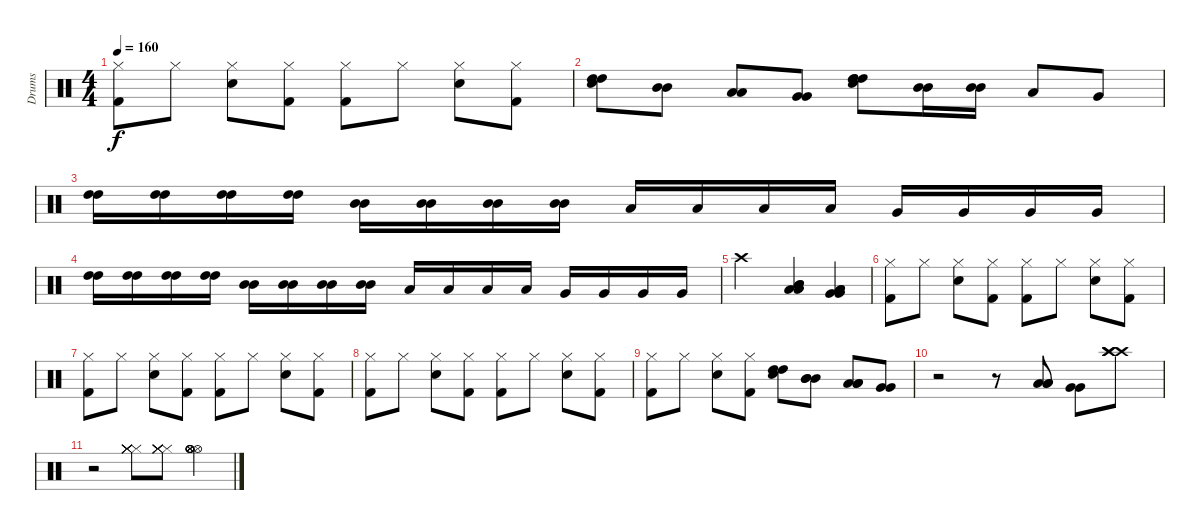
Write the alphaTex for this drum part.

\track ("Drums" "Drums") {instrument percussion}
\staff {score}
\articulation defaults
\ts (4 4)
\tempo 160
\clef neutral
\ks c
("Hi-Hat (closed)" "Kick (hit) 2").8{dy f} "Hi-Hat (closed)".8 ("Hi-Hat (closed)" "Electric Snare (hit)").8 ("Hi-Hat (closed)" "Kick (hit) 2").8 ("Hi-Hat (closed)" "Kick (hit) 2").8 "Hi-Hat (closed)".8 ("Hi-Hat (closed)" "Electric Snare (hit)").8 ("Hi-Hat (closed)" "Kick (hit) 2").8 |
("High Tom (hit)" "Electric Snare (hit)" "High Tom (hit)").8 ("Mid Tom (hit)" "Mid Tom (hit)").8 ("Low Tom (hit)" "Low Tom (hit)").8 ("Very Low Tom (hit)" "Very Low Tom (hit)").8 ("High Tom (hit)" "High Tom (hit)" "High Tom (hit)" "Electric Snare (hit)").8 ("Mid Tom (hit)" "Mid Tom (hit)").16 ("Mid Tom (hit)" "Mid Tom (hit)").16 "Low Tom (hit)".8 "Very Low Tom (hit)".8 |
("High Tom (hit)" "High Tom (hit)").16 ("High Tom (hit)" "High Tom (hit)").16 ("High Tom (hit)" "High Tom (hit)").16 ("High Tom (hit)" "High Tom (hit)").16 ("Mid Tom (hit)" "Mid Tom (hit)").16 ("Mid Tom (hit)" "Mid Tom (hit)").16 ("Mid Tom (hit)" "Mid Tom (hit)").16 ("Mid Tom (hit)" "Mid Tom (hit)").16 "Low Tom (hit)".16 "Low Tom (hit)".16 "Low Tom (hit)".16 "Low Tom (hit)".16 "Very Low Tom (hit)".16 "Very Low Tom (hit)".16 "Very Low Tom (hit)".16 "Very Low Tom (hit)".16 |
("High Tom (hit)" "High Tom (hit)").16 ("High Tom (hit)" "High Tom (hit)").16 ("High Tom (hit)" "High Tom (hit)").16 ("High Tom (hit)" "High Tom (hit)").16 ("Mid Tom (hit)" "Mid Tom (hit)").16 ("Mid Tom (hit)" "Mid Tom (hit)").16 ("Mid Tom (hit)" "Mid Tom (hit)").16 ("Mid Tom (hit)" "Mid Tom (hit)").16 "Low Tom (hit)".16 "Low Tom (hit)".16 "Low Tom (hit)".16 "Low Tom (hit)".16 "Very Low Tom (hit)".16 "Very Low Tom (hit)".16 "Very Low Tom (hit)".16 "Very Low Tom (hit)".16 |
"Crash high (hit)".2 ("Low Tom (hit)" "Low Tom (hit)" "Mid Tom (hit)" "Mid Tom (hit)").4 ("Very Low Tom (hit)" "Very Low Tom (hit)" "Low Tom (hit)" "Low Tom (hit)").4 |
("Hi-Hat (closed)" "Kick (hit) 2").8 "Hi-Hat (closed)".8 ("Hi-Hat (closed)" "Electric Snare (hit)").8 ("Hi-Hat (closed)" "Kick (hit) 2").8 ("Hi-Hat (closed)" "Kick (hit) 2").8 "Hi-Hat (closed)".8 ("Hi-Hat (closed)" "Electric Snare (hit)").8 ("Hi-Hat (closed)" "Kick (hit) 2").8 |
("Hi-Hat (closed)" "Kick (hit) 2").8 "Hi-Hat (closed)".8 ("Hi-Hat (closed)" "Electric Snare (hit)").8 ("Hi-Hat (closed)" "Kick (hit) 2").8 ("Hi-Hat (closed)" "Kick (hit) 2").8 "Hi-Hat (closed)".8 ("Hi-Hat (closed)" "Electric Snare (hit)").8 ("Hi-Hat (closed)" "Kick (hit) 2").8 |
("Hi-Hat (closed)" "Kick (hit) 2").8 "Hi-Hat (closed)".8 ("Hi-Hat (closed)" "Electric Snare (hit)").8 ("Hi-Hat (closed)" "Kick (hit) 2").8 ("Hi-Hat (closed)" "Kick (hit) 2").8 "Hi-Hat (closed)".8 ("Hi-Hat (closed)" "Electric Snare (hit)").8 ("Hi-Hat (closed)" "Kick (hit) 2").8 |
("Hi-Hat (closed)" "Kick (hit) 2").8 "Hi-Hat (closed)".8 ("Hi-Hat (closed)" "Electric Snare (hit)").8 ("Hi-Hat (closed)" "Kick (hit) 2").8 ("High Tom (hit)" "High Tom (hit)" "Electric Snare (hit)").8 ("Mid Tom (hit)" "Mid Tom (hit)" "Mid Tom (hit)").8 ("Low Tom (hit)" "Low Tom (hit)" "Low Tom (hit)").8 ("Very Low Tom (hit)" "Very Low Tom (hit)").8 |
r.2 r.8 ("Low Tom (hit)" "Low Tom (hit)" "Low Tom (hit)").8 ("Very Low Tom (hit)" "Very Low Tom (hit)").8 ("Crash high (hit)" "Crash high (hit)" "Crash high (hit)").8 |
r.2 ("Hi-Hat (closed)" "Hi-Hat (closed)" "Hi-Hat (closed)" "Hi-Hat (closed)" "Hi-Hat (closed)" "Hi-Hat (closed)").8 ("Hi-Hat (closed)" "Hi-Hat (closed)" "Hi-Hat (closed)" "Hi-Hat (closed)" "Hi-Hat (closed)" "Hi-Hat (closed)").8 ("Hi-Hat (open)" "Hi-Hat (open)" "Hi-Hat (open)" "Hi-Hat (open)" "Hi-Hat (open)" "Hi-Hat (open)").4
